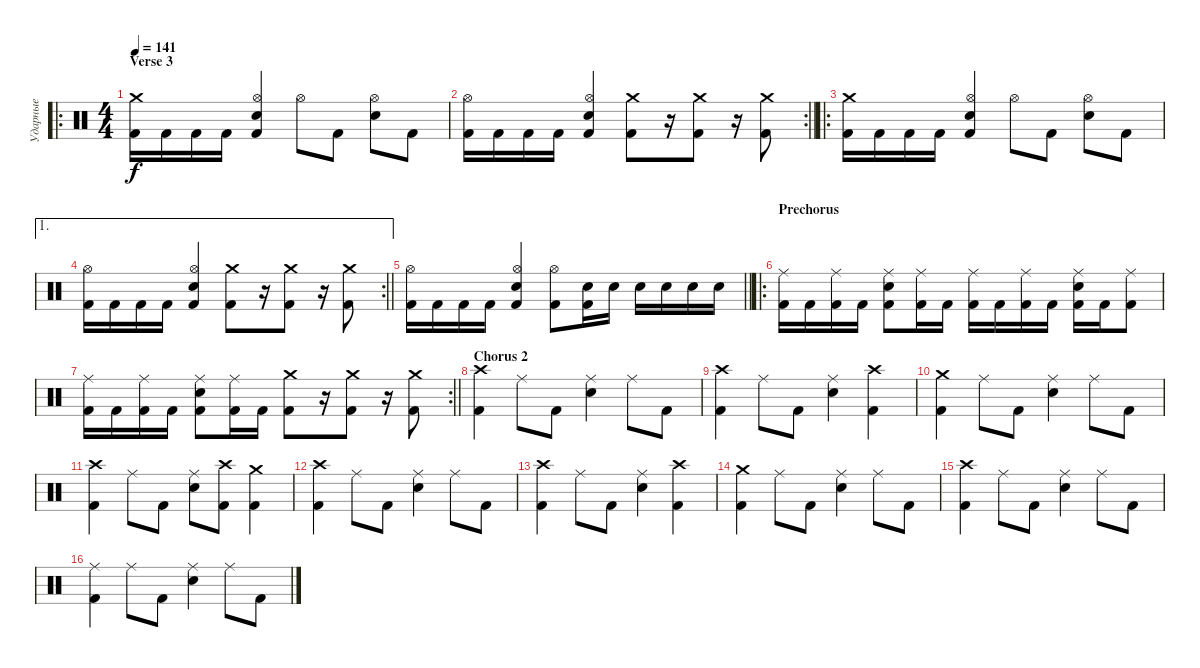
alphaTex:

\track ("Ударные" "Ударные") {instrument percussion}
\staff {score}
\articulation defaults
\ro
\ts (4 4)
\section ("" "Verse 3")
\tempo 141
\clef neutral
\ks c
("Crash medium (hit)" "Kick (hit) 2").16{dy f} "Kick (hit) 2".16 "Kick (hit) 2".16 "Kick (hit) 2".16 ("Hi-Hat (open)" "Electric Snare (hit)" "Kick (hit) 2").4 "Hi-Hat (open)".8 "Kick (hit) 2".8 ("Hi-Hat (open)" "Electric Snare (hit)").8 "Kick (hit) 2".8 |
\rc 2
\barLineRight lightlight
("Hi-Hat (open)" "Kick (hit) 2").16 "Kick (hit) 2".16 "Kick (hit) 2".16 "Kick (hit) 2".16 ("Hi-Hat (open)" "Electric Snare (hit)" "Kick (hit) 2").4 ("Crash medium (hit)" "Kick (hit) 2").8 r.16 ("Crash medium (hit)" "Kick (hit) 2").8 r.16 ("Crash medium (hit)" "Kick (hit) 2").8 |
\ro
("Crash medium (hit)" "Kick (hit) 2").16 "Kick (hit) 2".16 "Kick (hit) 2".16 "Kick (hit) 2".16 ("Hi-Hat (open)" "Electric Snare (hit)" "Kick (hit) 2").4 "Hi-Hat (open)".8 "Kick (hit) 2".8 ("Hi-Hat (open)" "Electric Snare (hit)").8 "Kick (hit) 2".8 |
\ae 1
\rc 2
\barLineRight lightlight
("Hi-Hat (open)" "Kick (hit) 2").16 "Kick (hit) 2".16 "Kick (hit) 2".16 "Kick (hit) 2".16 ("Hi-Hat (open)" "Electric Snare (hit)" "Kick (hit) 2").4 ("Crash medium (hit)" "Kick (hit) 2").8 r.16 ("Crash medium (hit)" "Kick (hit) 2").8 r.16 ("Crash medium (hit)" "Kick (hit) 2").8 |
\barLineRight lightlight
("Hi-Hat (open)" "Kick (hit) 2").16 "Kick (hit) 2".16 "Kick (hit) 2".16 "Kick (hit) 2".16 ("Hi-Hat (open)" "Electric Snare (hit)" "Kick (hit) 2").4 ("Hi-Hat (open)" "Kick (hit) 2").8 ("Electric Snare (hit)" "Kick (hit) 2").16 "Electric Snare (hit)".16 "Electric Snare (hit)".16 "Electric Snare (hit)".16 "Electric Snare (hit)".16 "Electric Snare (hit)".16 |
\ro
\section ("" "Prechorus")
("Ride (middle)" "Kick (hit) 2").16 "Kick (hit) 2".16 ("Ride (middle)" "Kick (hit) 2").16 "Kick (hit) 2".16 ("Ride (middle)" "Electric Snare (hit)" "Kick (hit) 2").8 ("Ride (middle)" "Kick (hit) 2").16 "Kick (hit) 2".16 ("Ride (middle)" "Kick (hit) 2").16 "Kick (hit) 2".16 ("Ride (middle)" "Kick (hit) 2").16 "Kick (hit) 2".16 ("Ride (middle)" "Electric Snare (hit)" "Kick (hit) 2").16 "Kick (hit) 2".16 ("Ride (middle)" "Kick (hit) 2").8 |
\rc 2
\barLineRight lightlight
("Ride (middle)" "Kick (hit) 2").16 "Kick (hit) 2".16 ("Ride (middle)" "Kick (hit) 2").16 "Kick (hit) 2".16 ("Ride (middle)" "Electric Snare (hit)" "Kick (hit) 2").8 ("Ride (middle)" "Kick (hit) 2").16 "Kick (hit) 2".16 ("Crash medium (hit)" "Kick (hit) 2").8 r.16 ("Crash medium (hit)" "Kick (hit) 2").8 r.16 ("Crash medium (hit)" "Kick (hit) 2").8 |
\section ("" "Chorus 2")
("Crash high (hit)" "Kick (hit) 2").4 "Ride (middle)".8 "Kick (hit) 2".8 ("Ride (middle)" "Electric Snare (hit)").4 "Ride (middle)".8 "Kick (hit) 2".8 |
("Crash high (hit)" "Kick (hit) 2").4 "Ride (middle)".8 "Kick (hit) 2".8 ("Ride (middle)" "Electric Snare (hit)").4 ("Crash high (hit)" "Kick (hit) 2").4 |
("Crash medium (hit)" "Kick (hit) 2").4 "Ride (middle)".8 "Kick (hit) 2".8 ("Ride (middle)" "Electric Snare (hit)").4 "Ride (middle)".8 "Kick (hit) 2".8 |
("Crash high (hit)" "Kick (hit) 2").4 "Ride (middle)".8 "Kick (hit) 2".8 ("Ride (middle)" "Electric Snare (hit)").8 ("Crash high (hit)" "Kick (hit) 2").8 ("Crash medium (hit)" "Kick (hit) 2").4 |
("Crash high (hit)" "Kick (hit) 2").4 "Ride (middle)".8 "Kick (hit) 2".8 ("Ride (middle)" "Electric Snare (hit)").4 "Ride (middle)".8 "Kick (hit) 2".8 |
("Crash high (hit)" "Kick (hit) 2").4 "Ride (middle)".8 "Kick (hit) 2".8 ("Ride (middle)" "Electric Snare (hit)").4 ("Crash high (hit)" "Kick (hit) 2").4 |
("Crash medium (hit)" "Kick (hit) 2").4 "Ride (middle)".8 "Kick (hit) 2".8 ("Ride (middle)" "Electric Snare (hit)").4 "Ride (middle)".8 "Kick (hit) 2".8 |
("Crash high (hit)" "Kick (hit) 2").4 "Ride (middle)".8 "Kick (hit) 2".8 ("Ride (middle)" "Electric Snare (hit)").4 "Ride (middle)".8 "Kick (hit) 2".8 |
("Ride (middle)" "Kick (hit) 2").4 "Ride (middle)".8 "Kick (hit) 2".8 ("Ride (middle)" "Electric Snare (hit)").4 "Ride (middle)".8 "Kick (hit) 2".8
